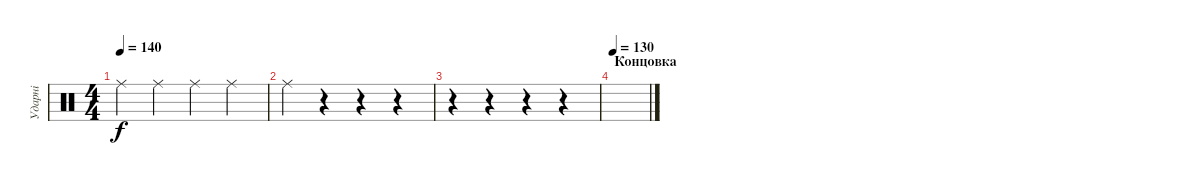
\track ("Ударні" "Ударні") {instrument percussion}
\staff {score}
\articulation defaults
\ts (4 4)
\tempo 140
\clef neutral
\ks c "Ride (middle)".4{dy f} "Ride (middle)".4 "Ride (middle)".4 "Ride (middle)".4
|
"Ride (middle)".4 r.4 r.4 r.4 |
r.4 r.4 r.4 r.4 |
\section ("" "Концовка")
\tempo 130
